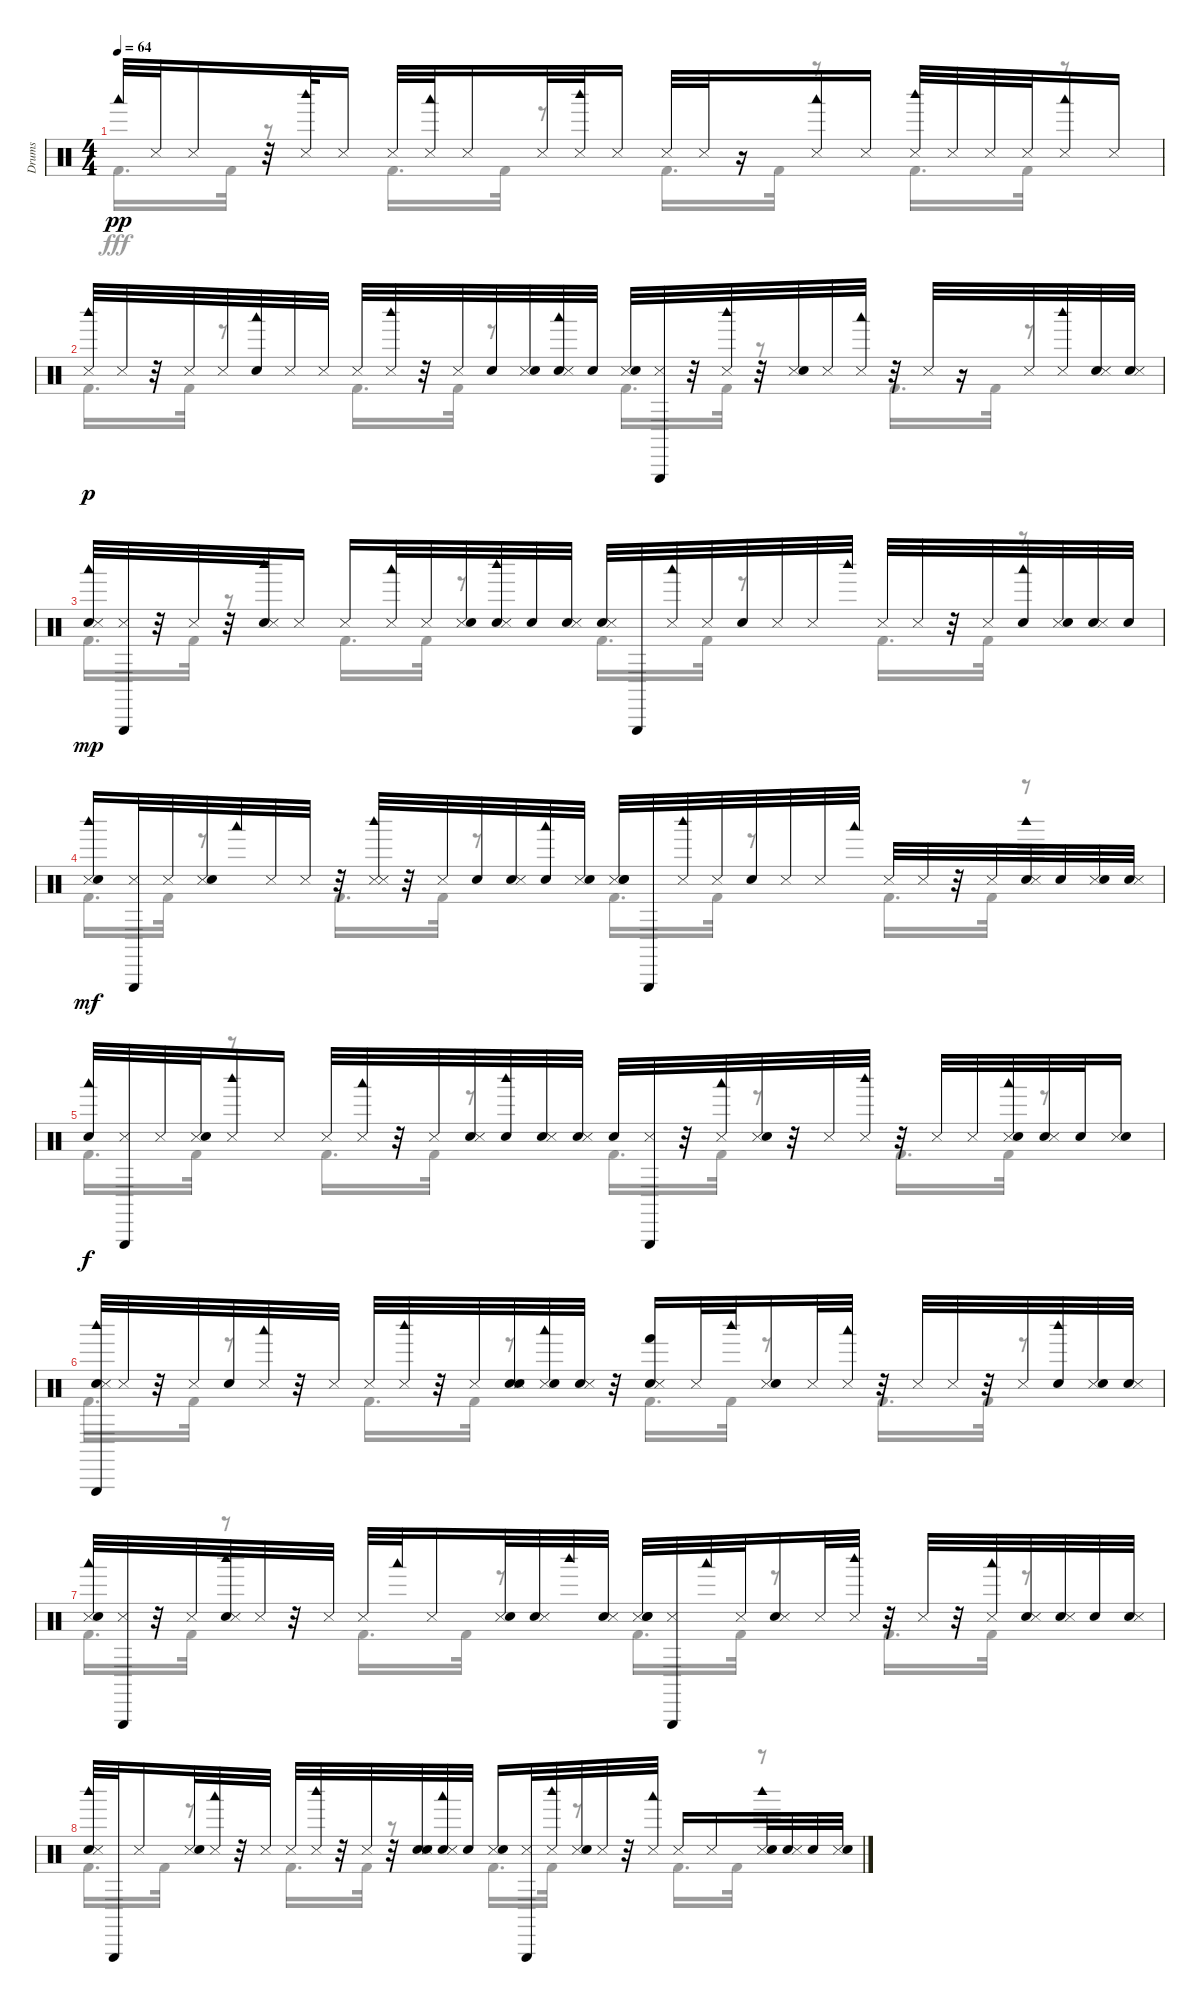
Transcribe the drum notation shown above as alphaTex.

\track ("Drums" "Drums") {instrument percussion}
\staff {score}
\articulation defaults
\voice
\ts (4 4)
\tempo 64
\clef neutral
\ks c "Woodblock low (hit)".32{dy pp} "Snare (side stick) 3".32 "Metronome (hit)".16
r.32 ("Snare (side stick) 3" "Woodblock high (hit)").32 "Metronome (hit)".16 "Snare (side stick) 3".32 ("Woodblock low (hit)" "Metronome (hit)").32 "Snare (side stick) 3".16 "Metronome (hit)".32 ("Woodblock high (hit)" "Snare (side stick) 3").32 "Metronome (hit)".16 "Snare (side stick) 3".32 "Metronome (hit)".32 r.16 ("Woodblock low (hit)" "Snare (side stick) 3").16 "Metronome (hit)".16 ("Snare (side stick) 3" "Woodblock high (hit)").32 "Metronome (hit)".32 "Snare (side stick) 3".32 "Metronome (hit)".32 ("Woodblock low (hit)" "Snare (side stick) 3").16 "Metronome (hit)".16 |
("Snare (side stick) 3" "Woodblock high (hit)").32{dy p} "Metronome (hit)".32 r.32 "Snare (side stick) 3".32 "Metronome (hit)".32 ("Electric Snare (hit)" "Woodblock low (hit)").32 "Snare (side stick) 3".32 "Metronome (hit)".32 "Snare (side stick) 3".32 ("Metronome (hit)" "Woodblock high (hit)").32 r.32 "Snare (side stick) 3".32 "Snare (hit) 2".32 ("Metronome (hit)" "Snare (hit) 2").32 ("Woodblock low (hit)" "Snare (hit) 2" "Snare (side stick) 3").32 "Snare (hit) 2".32 ("Metronome (hit)" "Metronome (bell)").32 ("Snare (side stick) 3" "Triangle (hit)").32 r.32 ("Woodblock high (hit)" "Metronome (hit)").32 r.32 ("Snare (side stick) 3" "Electric Snare (hit)").32 "Metronome (hit)".32 ("Woodblock low (hit)" "Snare (side stick) 3").32 r.32 "Metronome (hit)".32 r.16 "Snare (side stick) 3".32 ("Woodblock high (hit)" "Metronome (hit)").32 ("Snare (hit) 2" "Snare (side stick) 3").32 ("Snare (hit) 2" "Metronome (hit)").32 |
("Metronome (bell)" "Woodblock low (hit)" "Snare (side stick) 3").32{dy mp} ("Triangle (hit)" "Metronome (hit)").32 r.32 "Snare (side stick) 3".32 r.32 ("Electric Snare (hit)" "Metronome (hit)" "Woodblock high (hit)").32 "Snare (side stick) 3".16 "Metronome (hit)".16 ("Snare (side stick) 3" "Woodblock low (hit)").32 "Metronome (hit)".32 ("Snare (side stick) 3" "Snare (hit) 2").32 ("Snare (hit) 2" "Metronome (hit)" "Woodblock high (hit)").32 "Snare (hit) 2".32 ("Snare (hit) 2" "Snare (side stick) 3").32 ("Metronome (bell)" "Metronome (hit)").32 "Triangle (hit)".32 ("Woodblock low (hit)" "Snare (side stick) 3").32 "Metronome (hit)".32 "Electric Snare (hit)".32 "Snare (side stick) 3".32 "Metronome (hit)".32 "Woodblock high (hit)".32 "Snare (side stick) 3".32 "Metronome (hit)".32 r.32 "Snare (side stick) 3".32 ("Woodblock low (hit)" "Snare (hit) 2").32 ("Metronome (hit)" "Snare (hit) 2").32 ("Snare (hit) 2" "Snare (side stick) 3").32 "Snare (hit) 2".32 |
("Metronome (hit)" "Woodblock high (hit)" "Metronome (bell)").16{dy mf} ("Snare (side stick) 3" "Triangle (hit)").32 "Metronome (hit)".32 ("Snare (side stick) 3" "Electric Snare (hit)").32 "Woodblock low (hit)".32 "Metronome (hit)".32 "Snare (side stick) 3".32 r.32 ("Woodblock high (hit)" "Snare (side stick) 3" "Metronome (hit)").32 r.32 "Metronome (hit)".32 "Snare (hit) 2".32 ("Snare (hit) 2" "Snare (side stick) 3").32 ("Woodblock low (hit)" "Snare (hit) 2").32 ("Metronome (hit)" "Snare (hit) 2").32 ("Snare (side stick) 3" "Metronome (bell)" "Metronome (bell)").32 "Triangle (hit)".32 ("Metronome (hit)" "Woodblock high (hit)").32 "Snare (side stick) 3".32 "Electric Snare (hit)".32 "Metronome (hit)".32 "Snare (side stick) 3".32 "Woodblock low (hit)".32 "Metronome (hit)".32 "Snare (side stick) 3".32 r.32 "Metronome (hit)".32 ("Woodblock high (hit)" "Snare (hit) 2" "Snare (side stick) 3").32 "Snare (hit) 2".32 ("Metronome (hit)" "Snare (hit) 2").32 ("Snare (hit) 2" "Snare (side stick) 3").32 |
("Metronome (bell)" "Woodblock low (hit)").32{dy f} ("Metronome (hit)" "Triangle (hit)").32 "Snare (side stick) 3".32 ("Metronome (hit)" "Electric Snare (hit)").32 ("Woodblock high (hit)" "Snare (side stick) 3").16 "Metronome (hit)".16 "Snare (side stick) 3".32 ("Metronome (hit)" "Woodblock low (hit)").32 r.32 "Snare (side stick) 3".32 ("Snare (hit) 2" "Metronome (hit)").32 ("Snare (hit) 2" "Woodblock high (hit)").32 ("Snare (hit) 2" "Snare (side stick) 3").32 ("Snare (hit) 2" "Metronome (hit)").32 "Metronome (bell)".32 ("Snare (side stick) 3" "Triangle (hit)").32 r.32 ("Woodblock low (hit)" "Metronome (hit)").32 ("Snare (side stick) 3" "Electric Snare (hit)").32 r.32 "Metronome (hit)".32 ("Woodblock high (hit)" "Snare (side stick) 3").32 r.32 "Metronome (hit)".32 "Snare (side stick) 3".32 ("Metronome (hit)" "Woodblock low (hit)" "Snare (hit) 2").32 ("Snare (hit) 2" "Snare (side stick) 3").32 "Snare (hit) 2".32 ("Metronome (hit)" "Snare (hit) 2").16 |
("Metronome (bell)" "Triangle (hit)" "Woodblock high (hit)" "Snare (side stick) 3").32 "Metronome (hit)".32 r.32 "Snare (side stick) 3".32 "Electric Snare (hit)".32 ("Metronome (hit)" "Woodblock low (hit)").32 r.32 "Snare (side stick) 3".32 "Metronome (hit)".32 ("Snare (side stick) 3" "Woodblock high (hit)").32 r.32 "Metronome (hit)".32 ("Snare (hit) 2" "Snare (side stick) 3" "Snare (hit) 2").32 ("Metronome (hit)" "Woodblock low (hit)" "Snare (hit) 2").32 ("Snare (hit) 2" "Snare (side stick) 3").32 r.32 ("Hand (hit)" "Metronome (bell)" "Metronome (hit)").16 "Snare (side stick) 3".32 "Woodblock high (hit)".32 ("Metronome (hit)" "Electric Snare (hit)").16 "Snare (side stick) 3".32 ("Metronome (hit)" "Woodblock low (hit)").32 r.32 "Snare (side stick) 3".32 "Metronome (hit)".32 r.32 "Snare (side stick) 3".32 ("Woodblock high (hit)" "Snare (hit) 2").32 ("Metronome (hit)" "Snare (hit) 2").32 ("Snare (hit) 2" "Snare (side stick) 3").32 |
("Metronome (hit)" "Metronome (bell)" "Woodblock low (hit)").32 ("Triangle (hit)" "Snare (side stick) 3").32 r.32 "Metronome (hit)".32 ("Electric Snare (hit)" "Snare (side stick) 3" "Woodblock high (hit)").32 "Metronome (hit)".32 r.32 "Snare (side stick) 3".32 "Metronome (hit)".32 "Woodblock low (hit)".32 "Snare (side stick) 3".16 ("Metronome (hit)" "Snare (hit) 2").32 ("Snare (hit) 2" "Snare (side stick) 3").32 "Woodblock high (hit)".32 ("Snare (hit) 2" "Metronome (hit)").32 ("Snare (side stick) 3" "Metronome (bell)" "Snare (hit) 2").32 ("Triangle (hit)" "Metronome (hit)").32 "Woodblock low (hit)".32 "Snare (side stick) 3".32 ("Electric Snare (hit)" "Metronome (hit)").16 "Snare (side stick) 3".32 ("Woodblock high (hit)" "Metronome (hit)").32 r.32 "Snare (side stick) 3".32 r.32 ("Metronome (hit)" "Woodblock low (hit)").32 ("Snare (hit) 2" "Snare (side stick) 3").32 ("Snare (hit) 2" "Metronome (hit)").32 "Snare (hit) 2".32 ("Snare (hit) 2" "Snare (side stick) 3").32 |
("Woodblock high (hit)" "Metronome (bell)" "Metronome (hit)").32 "Triangle (hit)".32 "Snare (side stick) 3".16 ("Metronome (hit)" "Electric Snare (hit)").32 ("Woodblock low (hit)" "Snare (side stick) 3").32 r.32 "Metronome (hit)".32 "Snare (side stick) 3".32 ("Metronome (hit)" "Woodblock high (hit)").32 r.32 "Snare (side stick) 3".32 r.32 ("Snare (hit) 2" "Metronome (hit)" "Snare (hit) 2").32 ("Woodblock low (hit)" "Snare (hit) 2" "Snare (side stick) 3").32 "Snare (hit) 2".32 ("Metronome (hit)" "Metronome (bell)").16 ("Snare (side stick) 3" "Triangle (hit)").32 ("Woodblock high (hit)" "Metronome (hit)").32 ("Snare (side stick) 3" "Electric Snare (hit)").32 "Metronome (hit)".32 r.32 ("Woodblock low (hit)" "Snare (side stick) 3").32 "Metronome (hit)".16 "Snare (side stick) 3".16 ("Metronome (hit)" "Woodblock high (hit)" "Snare (hit) 2").32 ("Snare (hit) 2" "Snare (side stick) 3").32 "Snare (hit) 2".32 ("Metronome (hit)" "Snare (hit) 2").32
\voice
\clef neutral
\ottava regular
\simile none
\ks c "Kick (hit) 2".16{d dy fff} "Kick (hit) 2".32
r.8 "Kick (hit) 2".16{d} "Kick (hit) 2".32 r.8 "Kick (hit) 2".16{d} "Kick (hit) 2".32 r.8 "Kick (hit) 2".16{d} "Kick (hit) 2".32 r.8 |
"Kick (hit) 2".16{d} "Kick (hit) 2".32 r.8 "Kick (hit) 2".16{d} "Kick (hit) 2".32 r.8 "Kick (hit) 2".16{d} "Kick (hit) 2".32 r.8 "Kick (hit) 2".16{d} "Kick (hit) 2".32 r.8 |
"Kick (hit) 2".16{d} "Kick (hit) 2".32 r.8 "Kick (hit) 2".16{d} "Kick (hit) 2".32 r.8 "Kick (hit) 2".16{d} "Kick (hit) 2".32 r.8 "Kick (hit) 2".16{d} "Kick (hit) 2".32 r.8 |
"Kick (hit) 2".16{d} "Kick (hit) 2".32 r.8 "Kick (hit) 2".16{d} "Kick (hit) 2".32 r.8 "Kick (hit) 2".16{d} "Kick (hit) 2".32 r.8 "Kick (hit) 2".16{d} "Kick (hit) 2".32 r.8 |
"Kick (hit) 2".16{d} "Kick (hit) 2".32 r.8 "Kick (hit) 2".16{d} "Kick (hit) 2".32 r.8 "Kick (hit) 2".16{d} "Kick (hit) 2".32 r.8 "Kick (hit) 2".16{d} "Kick (hit) 2".32 r.8 |
"Kick (hit) 2".16{d} "Kick (hit) 2".32 r.8 "Kick (hit) 2".16{d} "Kick (hit) 2".32 r.8 "Kick (hit) 2".16{d} "Kick (hit) 2".32 r.8 "Kick (hit) 2".16{d} "Kick (hit) 2".32 r.8 |
"Kick (hit) 2".16{d} "Kick (hit) 2".32 r.8 "Kick (hit) 2".16{d} "Kick (hit) 2".32 r.8 "Kick (hit) 2".16{d} "Kick (hit) 2".32 r.8 "Kick (hit) 2".16{d} "Kick (hit) 2".32 r.8 |
"Kick (hit) 2".16{d} "Kick (hit) 2".32 r.8 "Kick (hit) 2".16{d} "Kick (hit) 2".32 r.8 "Kick (hit) 2".16{d} "Kick (hit) 2".32 r.8 "Kick (hit) 2".16{d} "Kick (hit) 2".32 r.8
